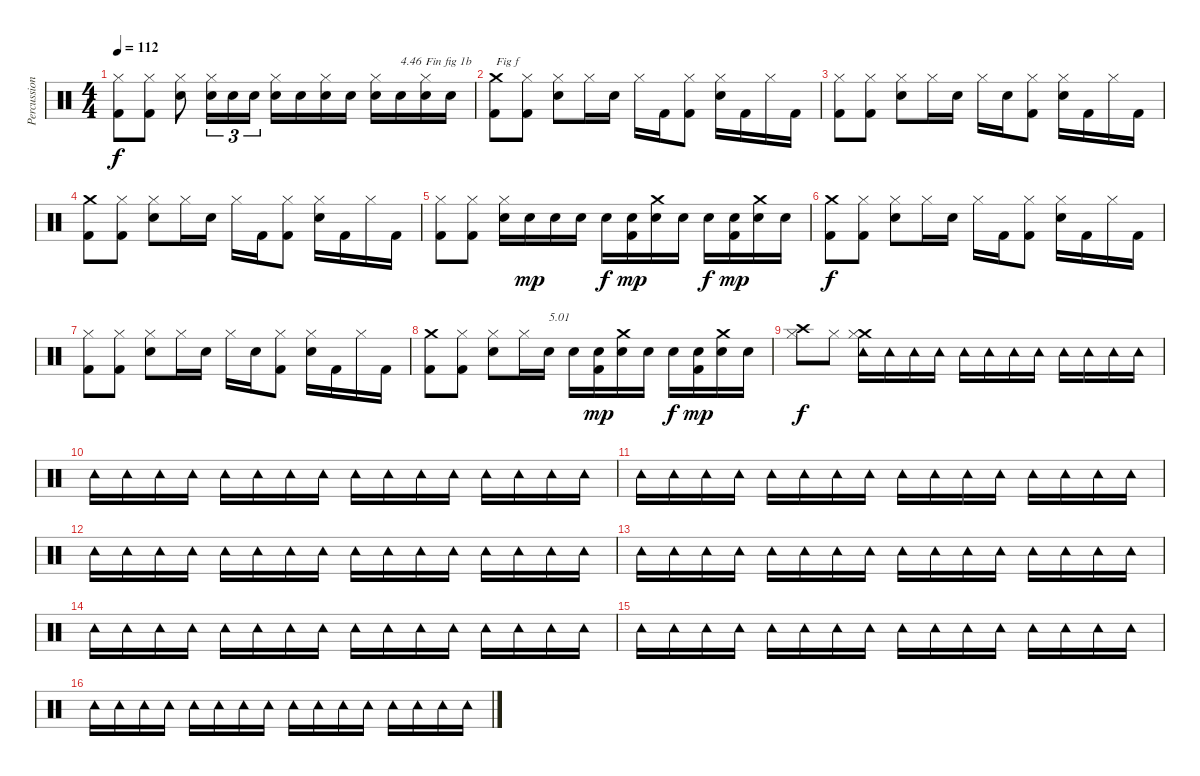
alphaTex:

\track ("Percussions" "Percussion") {instrument percussion}
\staff {score}
\articulation defaults
\ts (4 4)
\tempo 112
\clef neutral
\ks c
("Kick (hit) 2" "Hi-Hat (closed)").8{dy f} ("Kick (hit) 2" "Hi-Hat (closed)").8 ("Snare (hit) 2" "Hi-Hat (closed)").8 ("Snare (hit) 2" "Hi-Hat (closed)").16{tu (3 2)} "Snare (hit) 2".16{tu (3 2)} "Snare (hit) 2".16{tu (3 2)} ("Snare (hit) 2" "Hi-Hat (closed)").16 "Snare (hit) 2".16 ("Snare (hit) 2" "Hi-Hat (closed)").16 "Snare (hit) 2".16 ("Snare (hit) 2" "Hi-Hat (closed)").16 "Snare (hit) 2".16{txt "4.46"} ("Snare (hit) 2" "Hi-Hat (closed)").16{txt "Fin fig 1b"} "Snare (hit) 2".16 |
("Kick (hit) 2" "Crash medium (hit)").8{txt "Fig f"} ("Kick (hit) 2" "Hi-Hat (closed)").8 ("Snare (hit) 2" "Hi-Hat (closed)").8 "Hi-Hat (closed)".16 "Snare (hit) 2".16 "Hi-Hat (closed)".16 "Kick (hit) 2".16 ("Kick (hit) 2" "Hi-Hat (closed)").8 ("Snare (hit) 2" "Hi-Hat (closed)").16 "Kick (hit) 2".16 "Hi-Hat (closed)".16 "Kick (hit) 2".16 |
("Kick (hit) 2" "Hi-Hat (closed)").8 ("Kick (hit) 2" "Hi-Hat (closed)").8 ("Snare (hit) 2" "Hi-Hat (closed)").8 "Hi-Hat (closed)".16 "Snare (hit) 2".16 "Hi-Hat (closed)".16 "Snare (hit) 2".16 ("Kick (hit) 2" "Hi-Hat (closed)").8 ("Snare (hit) 2" "Hi-Hat (closed)").16 "Kick (hit) 2".16 "Hi-Hat (closed)".16 "Kick (hit) 2".16 |
("Kick (hit) 2" "Crash medium (hit)").8 ("Kick (hit) 2" "Hi-Hat (closed)").8 ("Snare (hit) 2" "Hi-Hat (closed)").8 "Hi-Hat (closed)".16 "Snare (hit) 2".16 "Hi-Hat (closed)".16 "Kick (hit) 2".16 ("Kick (hit) 2" "Hi-Hat (closed)").8 ("Snare (hit) 2" "Hi-Hat (closed)").16 "Kick (hit) 2".16 "Hi-Hat (closed)".16 "Kick (hit) 2".16 |
("Kick (hit) 2" "Hi-Hat (closed)").8 ("Kick (hit) 2" "Hi-Hat (closed)").8 ("Snare (hit) 2" "Hi-Hat (closed)").16 "Snare (hit) 2".16{dy mp} "Snare (hit) 2".16 "Snare (hit) 2".16 "Snare (hit) 2".16{dy f} ("Kick (hit) 2" "Snare (hit) 2").16{dy mp} ("Snare (hit) 2" "Crash medium (hit)").16 "Snare (hit) 2".16 "Snare (hit) 2".16{dy f} ("Kick (hit) 2" "Snare (hit) 2").16{dy mp} ("Snare (hit) 2" "Crash medium (hit)").16 "Snare (hit) 2".16 |
("Kick (hit) 2" "Crash medium (hit)").8{dy f} ("Kick (hit) 2" "Hi-Hat (closed)").8 ("Snare (hit) 2" "Hi-Hat (closed)").8 "Hi-Hat (closed)".16 "Snare (hit) 2".16 "Hi-Hat (closed)".16 "Kick (hit) 2".16 ("Kick (hit) 2" "Hi-Hat (closed)").8 ("Snare (hit) 2" "Hi-Hat (closed)").16 "Kick (hit) 2".16 "Hi-Hat (closed)".16 "Kick (hit) 2".16 |
("Kick (hit) 2" "Hi-Hat (closed)").8 ("Kick (hit) 2" "Hi-Hat (closed)").8 ("Snare (hit) 2" "Hi-Hat (closed)").8 "Hi-Hat (closed)".16 "Snare (hit) 2".16 "Hi-Hat (closed)".16 "Snare (hit) 2".16 ("Kick (hit) 2" "Hi-Hat (closed)").8 ("Snare (hit) 2" "Hi-Hat (closed)").16 "Kick (hit) 2".16 "Hi-Hat (closed)".16 "Kick (hit) 2".16 |
("Kick (hit) 2" "Crash medium (hit)").8 ("Kick (hit) 2" "Hi-Hat (closed)").8 ("Snare (hit) 2" "Hi-Hat (closed)").8 "Hi-Hat (closed)".16 "Snare (hit) 2".16{txt "5.01"} "Snare (hit) 2".16 ("Kick (hit) 2" "Snare (hit) 2").16{dy mp} ("Snare (hit) 2" "Crash medium (hit)").16 "Snare (hit) 2".16 "Snare (hit) 2".16{dy f} ("Kick (hit) 2" "Snare (hit) 2").16{dy mp} ("Snare (hit) 2" "Crash medium (hit)").16 "Snare (hit) 2".16 |
("Crash high (hit)" "Hi-Hat (closed)").8{dy f} "Hi-Hat (closed)".8 ("Tambourine (hit)" "Crash medium (hit)" "Hi-Hat (closed)").16 "Tambourine (hit)".16 "Tambourine (hit)".16 "Tambourine (hit)".16 "Tambourine (hit)".16 "Tambourine (hit)".16 "Tambourine (hit)".16 "Tambourine (hit)".16 "Tambourine (hit)".16 "Tambourine (hit)".16 "Tambourine (hit)".16 "Tambourine (hit)".16 |
"Tambourine (hit)".16 "Tambourine (hit)".16 "Tambourine (hit)".16 "Tambourine (hit)".16 "Tambourine (hit)".16 "Tambourine (hit)".16 "Tambourine (hit)".16 "Tambourine (hit)".16 "Tambourine (hit)".16 "Tambourine (hit)".16 "Tambourine (hit)".16 "Tambourine (hit)".16 "Tambourine (hit)".16 "Tambourine (hit)".16 "Tambourine (hit)".16 "Tambourine (hit)".16 |
"Tambourine (hit)".16 "Tambourine (hit)".16 "Tambourine (hit)".16 "Tambourine (hit)".16 "Tambourine (hit)".16 "Tambourine (hit)".16 "Tambourine (hit)".16 "Tambourine (hit)".16 "Tambourine (hit)".16 "Tambourine (hit)".16 "Tambourine (hit)".16 "Tambourine (hit)".16 "Tambourine (hit)".16 "Tambourine (hit)".16 "Tambourine (hit)".16 "Tambourine (hit)".16 |
"Tambourine (hit)".16 "Tambourine (hit)".16 "Tambourine (hit)".16 "Tambourine (hit)".16 "Tambourine (hit)".16 "Tambourine (hit)".16 "Tambourine (hit)".16 "Tambourine (hit)".16 "Tambourine (hit)".16 "Tambourine (hit)".16 "Tambourine (hit)".16 "Tambourine (hit)".16 "Tambourine (hit)".16 "Tambourine (hit)".16 "Tambourine (hit)".16 "Tambourine (hit)".16 |
"Tambourine (hit)".16 "Tambourine (hit)".16 "Tambourine (hit)".16 "Tambourine (hit)".16 "Tambourine (hit)".16 "Tambourine (hit)".16 "Tambourine (hit)".16 "Tambourine (hit)".16 "Tambourine (hit)".16 "Tambourine (hit)".16 "Tambourine (hit)".16 "Tambourine (hit)".16 "Tambourine (hit)".16 "Tambourine (hit)".16 "Tambourine (hit)".16 "Tambourine (hit)".16 |
"Tambourine (hit)".16 "Tambourine (hit)".16 "Tambourine (hit)".16 "Tambourine (hit)".16 "Tambourine (hit)".16 "Tambourine (hit)".16 "Tambourine (hit)".16 "Tambourine (hit)".16 "Tambourine (hit)".16 "Tambourine (hit)".16 "Tambourine (hit)".16 "Tambourine (hit)".16 "Tambourine (hit)".16 "Tambourine (hit)".16 "Tambourine (hit)".16 "Tambourine (hit)".16 |
"Tambourine (hit)".16 "Tambourine (hit)".16 "Tambourine (hit)".16 "Tambourine (hit)".16 "Tambourine (hit)".16 "Tambourine (hit)".16 "Tambourine (hit)".16 "Tambourine (hit)".16 "Tambourine (hit)".16 "Tambourine (hit)".16 "Tambourine (hit)".16 "Tambourine (hit)".16 "Tambourine (hit)".16 "Tambourine (hit)".16 "Tambourine (hit)".16 "Tambourine (hit)".16 |
"Tambourine (hit)".16 "Tambourine (hit)".16 "Tambourine (hit)".16 "Tambourine (hit)".16 "Tambourine (hit)".16 "Tambourine (hit)".16 "Tambourine (hit)".16 "Tambourine (hit)".16 "Tambourine (hit)".16 "Tambourine (hit)".16 "Tambourine (hit)".16 "Tambourine (hit)".16 "Tambourine (hit)".16 "Tambourine (hit)".16 "Tambourine (hit)".16 "Tambourine (hit)".16
